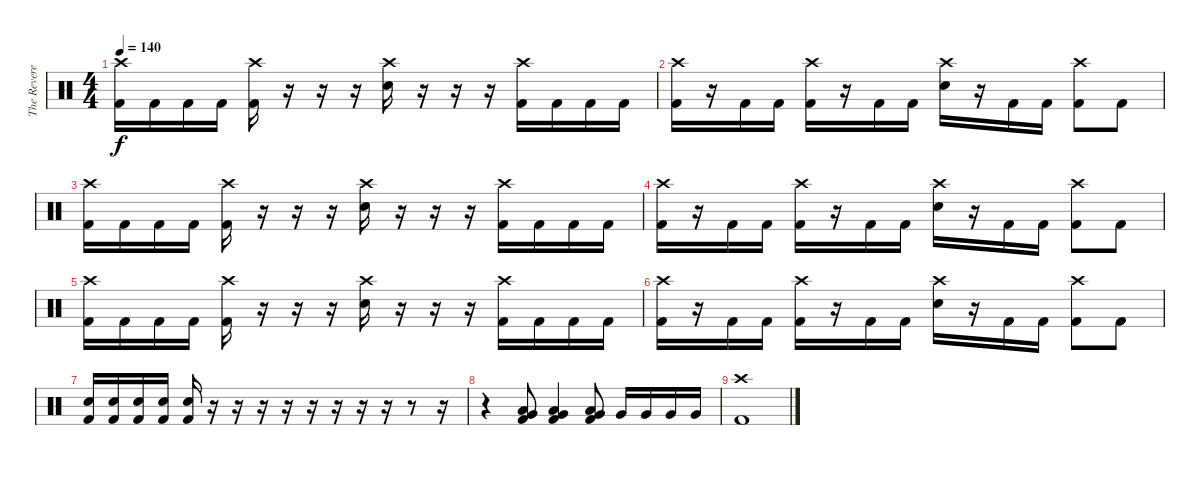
\track ("The Reverend" "The Revere") {instrument percussion}
\staff {score}
\articulation defaults
\ts (4 4)
\tempo 140
\clef neutral
\ks c
("Crash high (hit)" "Kick (hit) 2").16{dy f} "Kick (hit) 2".16 "Kick (hit) 2".16 "Kick (hit) 2".16 ("Crash high (hit)" "Kick (hit) 2").16 r.16 r.16 r.16 ("Crash high (hit)" "Electric Snare (hit)").16 r.16 r.16 r.16 ("Crash high (hit)" "Kick (hit) 2").16 "Kick (hit) 2".16 "Kick (hit) 2".16 "Kick (hit) 2".16 |
("Crash high (hit)" "Kick (hit) 2").16 r.16 "Kick (hit) 2".16 "Kick (hit) 2".16 ("Crash high (hit)" "Kick (hit) 2").16 r.16 "Kick (hit) 2".16 "Kick (hit) 2".16 ("Crash high (hit)" "Electric Snare (hit)").16 r.16 "Kick (hit) 2".16 "Kick (hit) 2".16 ("Crash high (hit)" "Kick (hit) 2").8 "Kick (hit) 2".8 |
("Crash high (hit)" "Kick (hit) 2").16 "Kick (hit) 2".16 "Kick (hit) 2".16 "Kick (hit) 2".16 ("Crash high (hit)" "Kick (hit) 2").16 r.16 r.16 r.16 ("Crash high (hit)" "Electric Snare (hit)").16 r.16 r.16 r.16 ("Crash high (hit)" "Kick (hit) 2").16 "Kick (hit) 2".16 "Kick (hit) 2".16 "Kick (hit) 2".16 |
("Crash high (hit)" "Kick (hit) 2").16 r.16 "Kick (hit) 2".16 "Kick (hit) 2".16 ("Crash high (hit)" "Kick (hit) 2").16 r.16 "Kick (hit) 2".16 "Kick (hit) 2".16 ("Crash high (hit)" "Electric Snare (hit)").16 r.16 "Kick (hit) 2".16 "Kick (hit) 2".16 ("Crash high (hit)" "Kick (hit) 2").8 "Kick (hit) 2".8 |
("Crash high (hit)" "Kick (hit) 2").16 "Kick (hit) 2".16 "Kick (hit) 2".16 "Kick (hit) 2".16 ("Crash high (hit)" "Kick (hit) 2").16 r.16 r.16 r.16 ("Crash high (hit)" "Electric Snare (hit)").16 r.16 r.16 r.16 ("Crash high (hit)" "Kick (hit) 2").16 "Kick (hit) 2".16 "Kick (hit) 2".16 "Kick (hit) 2".16 |
("Crash high (hit)" "Kick (hit) 2").16 r.16 "Kick (hit) 2".16 "Kick (hit) 2".16 ("Crash high (hit)" "Kick (hit) 2").16 r.16 "Kick (hit) 2".16 "Kick (hit) 2".16 ("Crash high (hit)" "Electric Snare (hit)").16 r.16 "Kick (hit) 2".16 "Kick (hit) 2".16 ("Crash high (hit)" "Kick (hit) 2").8 "Kick (hit) 2".8 |
("Electric Snare (hit)" "Kick (hit) 2").16 ("Electric Snare (hit)" "Kick (hit) 2").16 ("Electric Snare (hit)" "Kick (hit) 2").16 ("Electric Snare (hit)" "Kick (hit) 2").16 ("Electric Snare (hit)" "Kick (hit) 2").16 r.16 r.16 r.16 r.16 r.16 r.16 r.16 r.16 r.8 r.16 |
r.4 ("Low Tom (hit)" "Very Low Tom (hit)" "Kick (hit) 2").8 ("Low Tom (hit)" "Very Low Tom (hit)" "Kick (hit) 2").4 ("Low Tom (hit)" "Very Low Tom (hit)" "Kick (hit) 2").8 "Very Low Tom (hit)".16 "Very Low Tom (hit)".16 "Very Low Tom (hit)".16 "Very Low Tom (hit)".16 |
("Crash high (hit)" "Kick (hit) 2").1
